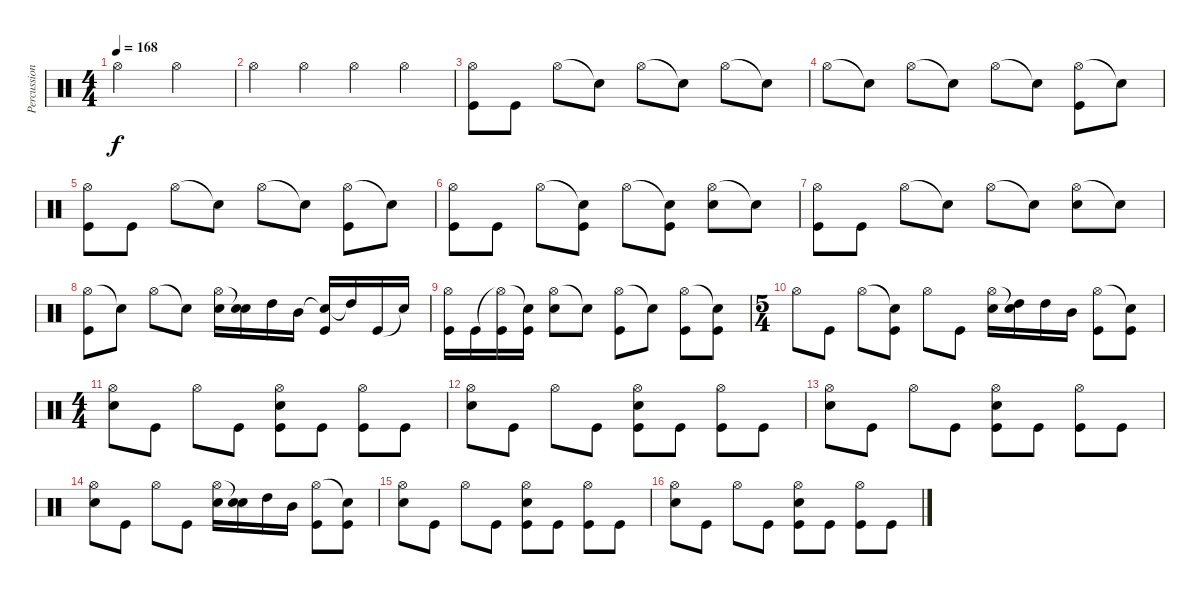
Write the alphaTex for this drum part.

\track ("Percussions" "Percussion") {instrument percussion}
\staff {score}
\articulation defaults
\ts (4 4)
\tempo 168
\clef neutral
\ks c "Hi-Hat (open)".2{dy f} "Hi-Hat (open)".2
|
"Hi-Hat (open)".4 "Hi-Hat (open)".4 "Hi-Hat (open)".4 "Hi-Hat (open)".4 |
("Hi-Hat (open)" "Kick (hit)").8 "Kick (hit)".8 "Hi-Hat (open)".8 "Snare (hit)"{t}.8 "Hi-Hat (open)".8 "Snare (hit)"{t}.8 "Hi-Hat (open)".8 "Snare (hit)"{t}.8 |
"Hi-Hat (open)".8 "Snare (hit)"{t}.8 "Hi-Hat (open)".8 "Snare (hit)"{t}.8 "Hi-Hat (open)".8 "Snare (hit)"{t}.8 ("Hi-Hat (open)" "Kick (hit)").8 "Snare (hit)"{t}.8 |
("Hi-Hat (open)" "Kick (hit)").8 "Kick (hit)".8 "Hi-Hat (open)".8 "Snare (hit)"{t}.8 "Hi-Hat (open)".8 "Snare (hit)"{t}.8 ("Hi-Hat (open)" "Kick (hit)").8 "Snare (hit)"{t}.8 |
("Hi-Hat (open)" "Kick (hit)").8 "Kick (hit)".8 "Hi-Hat (open)".8 ("Snare (hit)"{t} "Kick (hit)").8 "Hi-Hat (open)".8 ("Snare (hit)"{t} "Kick (hit)").8 ("Hi-Hat (open)" "Snare (hit) 2").8 "Snare (hit)"{t}.8 |
("Hi-Hat (open)" "Kick (hit)").8 "Kick (hit)".8 "Hi-Hat (open)".8 "Snare (hit)"{t}.8 "Hi-Hat (open)".8 "Snare (hit)"{t}.8 ("Hi-Hat (open)" "Snare (hit) 2").8 "Snare (hit)"{t}.8 |
("Hi-Hat (open)" "Kick (hit)").8 "Snare (hit)"{t}.8 "Hi-Hat (open)".8 "Snare (hit)"{t}.8 ("Hi-Hat (open)" "Snare (hit) 2").16 ("Snare (hit)"{t} "Snare (hit) 2").16 "High Tom (hit)".16 "Mid Tom (hit)".16 ("Snare (hit)"{t} "Kick (hit)").16 "High Tom (hit)"{t}.16 "Kick (hit)".16 "Snare (hit)"{t}.16 |
("Hi-Hat (open)" "Kick (hit)").16 "Kick (hit)".16 ("Hi-Hat (open)"{t} "Kick (hit)").16 ("Snare (hit)"{t} "Kick (hit)").16 ("Hi-Hat (open)" "Snare (hit) 2").8 "Snare (hit)"{t}.8 ("Hi-Hat (open)" "Kick (hit)").8 "Snare (hit)"{t}.8 ("Hi-Hat (open)" "Kick (hit)").8 ("Snare (hit)"{t} "Kick (hit)").8 |
\ts (5 4)
"Hi-Hat (open)".8 "Kick (hit)".8 "Hi-Hat (open)".8 ("Snare (hit)"{t} "Kick (hit)").8 "Hi-Hat (open)".8 "Kick (hit)".8 ("Hi-Hat (open)" "Snare (hit) 2").16 ("Snare (hit)"{t} "High Tom (hit)").16 "High Tom (hit)".16 "Mid Tom (hit)".16 ("Hi-Hat (open)" "Kick (hit)").8 ("Snare (hit)"{t} "Kick (hit)").8 |
\ts (4 4)
("Hi-Hat (open)" "Snare (hit) 2").8 "Kick (hit)".8 "Hi-Hat (open)".8 "Kick (hit)".8 ("Hi-Hat (open)" "Kick (hit)" "Snare (hit) 2").8 "Kick (hit)".8 ("Hi-Hat (open)" "Kick (hit)").8 "Kick (hit)".8 |
("Hi-Hat (open)" "Snare (hit) 2").8 "Kick (hit)".8 "Hi-Hat (open)".8 "Kick (hit)".8 ("Hi-Hat (open)" "Kick (hit)" "Snare (hit) 2").8 "Kick (hit)".8 ("Hi-Hat (open)" "Kick (hit)").8 "Kick (hit)".8 |
("Hi-Hat (open)" "Snare (hit) 2").8 "Kick (hit)".8 "Hi-Hat (open)".8 "Kick (hit)".8 ("Hi-Hat (open)" "Kick (hit)" "Snare (hit) 2").8 "Kick (hit)".8 ("Hi-Hat (open)" "Kick (hit)").8 "Kick (hit)".8 |
("Hi-Hat (open)" "Snare (hit) 2").8 "Kick (hit)".8 "Hi-Hat (open)".8 "Kick (hit)".8 ("Hi-Hat (open)" "Snare (hit) 2").16 ("Snare (hit)"{t} "Snare (hit) 2").16 "High Tom (hit)".16 "Mid Tom (hit)".16 ("Hi-Hat (open)" "Kick (hit)").8 ("Snare (hit)"{t} "Kick (hit)").8 |
("Hi-Hat (open)" "Snare (hit) 2").8 "Kick (hit)".8 "Hi-Hat (open)".8 "Kick (hit)".8 ("Hi-Hat (open)" "Kick (hit)" "Snare (hit) 2").8 "Kick (hit)".8 ("Hi-Hat (open)" "Kick (hit)").8 "Kick (hit)".8 |
("Hi-Hat (open)" "Snare (hit) 2").8 "Kick (hit)".8 "Hi-Hat (open)".8 "Kick (hit)".8 ("Hi-Hat (open)" "Kick (hit)" "Snare (hit) 2").8 "Kick (hit)".8 ("Hi-Hat (open)" "Kick (hit)").8 "Kick (hit)".8
